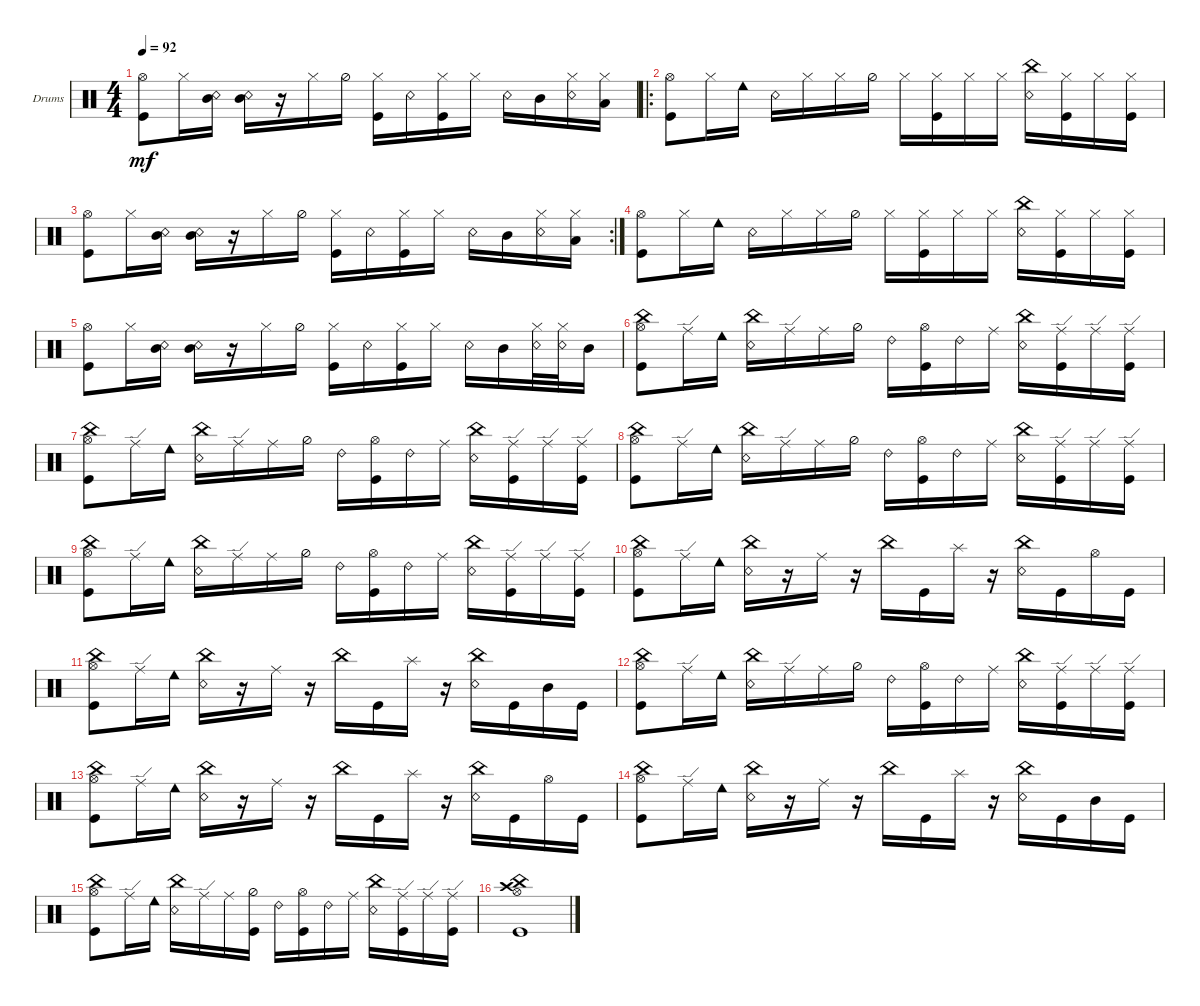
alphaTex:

\defaultSystemsLayout 4
\bracketExtendMode groupsimilarinstruments
\firstSystemTrackNameOrientation horizontal
\otherSystemsTrackNameOrientation horizontal
\track ("Drumkit" "Drums") {instrument percussion}
\staff {score}
\articulation defaults
\ts (4 4)
\tempo 92
\clef neutral
\ks c
("Hi-Hat (open)" "Kick (hit)").8{dy mf} "Hi-Hat (closed)".16 ("Snare (rim shot)" "Mid Tom (hit)").16 ("Snare (rim shot)" "Mid Tom (hit)").16 r.16 "Hi-Hat (closed)".16 "Hi-Hat (half)".16 ("Hi-Hat (closed)" "Kick (hit)").16 "Snare (rim shot)".16 ("Hi-Hat (closed)" "Kick (hit)").16 "Hi-Hat (closed)".16 "Snare (rim shot)".16 "Mid Tom (hit)".16 ("Hi-Hat (closed)" "Snare (rim shot)").16 ("Hi-Hat (closed)" "Low Tom (hit)").16 |
\ro
("Hi-Hat (open)" "Kick (hit)").8 "Hi-Hat (closed)".16 "Cowbell low (hit)".16 "Snare (rim shot)".16 "Hi-Hat (closed)".16 "Hi-Hat (closed)".16 "Hi-Hat (half)".16 "Hi-Hat (closed)".16 ("Hi-Hat (closed)" "Kick (hit)").16 "Hi-Hat (closed)".16 "Hi-Hat (closed)".16 ("Snare (rim shot)" "China (hit)").16 ("Hi-Hat (closed)" "Kick (hit)").16 "Hi-Hat (closed)".16 ("Hi-Hat (closed)" "Kick (hit)").16 |
\rc 2
("Hi-Hat (open)" "Kick (hit)").8 "Hi-Hat (closed)".16 ("Snare (rim shot)" "Mid Tom (hit)").16 ("Snare (rim shot)" "Mid Tom (hit)").16 r.16 "Hi-Hat (closed)".16 "Hi-Hat (half)".16 ("Hi-Hat (closed)" "Kick (hit)").16 "Snare (rim shot)".16 ("Hi-Hat (closed)" "Kick (hit)").16 "Hi-Hat (closed)".16 "Snare (rim shot)".16 "Mid Tom (hit)".16 ("Hi-Hat (closed)" "Snare (rim shot)").16 ("Hi-Hat (closed)" "Low Tom (hit)").16 |
("Hi-Hat (open)" "Kick (hit)").8 "Hi-Hat (closed)".16 "Cowbell low (hit)".16 "Snare (rim shot)".16 "Hi-Hat (closed)".16 "Hi-Hat (closed)".16 "Hi-Hat (half)".16 "Hi-Hat (closed)".16 ("Hi-Hat (closed)" "Kick (hit)").16 "Hi-Hat (closed)".16 "Hi-Hat (closed)".16 ("Snare (rim shot)" "China (hit)").16 ("Hi-Hat (closed)" "Kick (hit)").16 "Hi-Hat (closed)".16 ("Hi-Hat (closed)" "Kick (hit)").16 |
("Hi-Hat (open)" "Kick (hit)").8 "Hi-Hat (closed)".16 ("Snare (rim shot)" "Mid Tom (hit)").16 ("Snare (rim shot)" "Mid Tom (hit)").16 r.16 "Hi-Hat (closed)".16 "Hi-Hat (half)".16 ("Hi-Hat (closed)" "Kick (hit)").16 "Snare (rim shot)".16 ("Hi-Hat (closed)" "Kick (hit)").16 "Hi-Hat (closed)".16 "Snare (rim shot)".16 "Mid Tom (hit)".16 ("Hi-Hat (closed)" "Snare (rim shot)").32 ("Hi-Hat (closed)" "Snare (rim shot)").32 "Mid Tom (hit)".16 |
("Hi-Hat (open)" "Kick (hit)" "China (hit)").8 "Ride (edge)".16 "Cowbell low (hit)".16 ("Snare (rim shot)" "China (hit)").16 "Ride (edge)".16 "Ride (middle)".16 "Hi-Hat (half)".16 "Ride (bell) 2".16 ("Hi-Hat (open)" "Kick (hit)").16 "Ride (bell) 2".16 "Ride (middle)".16 ("Snare (rim shot)" "China (hit)").16 ("Kick (hit)" "Ride (edge)").16 "Ride (edge)".16 ("Kick (hit)" "Ride (edge)").16 |
("Hi-Hat (open)" "Kick (hit)" "China (hit)").8 "Ride (edge)".16 "Cowbell low (hit)".16 ("Snare (rim shot)" "China (hit)").16 "Ride (edge)".16 "Ride (middle)".16 "Hi-Hat (half)".16 "Ride (bell) 2".16 ("Hi-Hat (open)" "Kick (hit)").16 "Ride (bell) 2".16 "Ride (middle)".16 ("Snare (rim shot)" "China (hit)").16 ("Kick (hit)" "Ride (edge)").16 "Ride (edge)".16 ("Kick (hit)" "Ride (edge)").16 |
("Hi-Hat (open)" "Kick (hit)" "China (hit)").8 "Ride (edge)".16 "Cowbell low (hit)".16 ("Snare (rim shot)" "China (hit)").16 "Ride (edge)".16 "Ride (middle)".16 "Hi-Hat (half)".16 "Ride (bell) 2".16 ("Hi-Hat (open)" "Kick (hit)").16 "Ride (bell) 2".16 "Ride (middle)".16 ("Snare (rim shot)" "China (hit)").16 ("Kick (hit)" "Ride (edge)").16 "Ride (edge)".16 ("Kick (hit)" "Ride (edge)").16 |
("Hi-Hat (open)" "Kick (hit)" "China (hit)").8 "Ride (edge)".16 "Cowbell low (hit)".16 ("Snare (rim shot)" "China (hit)").16 "Ride (edge)".16 "Ride (middle)".16 "Hi-Hat (half)".16 "Ride (bell) 2".16 ("Hi-Hat (open)" "Kick (hit)").16 "Ride (bell) 2".16 "Ride (middle)".16 ("Snare (rim shot)" "China (hit)").16 ("Kick (hit)" "Ride (edge)").16 "Ride (edge)".16 ("Kick (hit)" "Ride (edge)").16 |
("Hi-Hat (open)" "Kick (hit)" "China (hit)").8 "Ride (edge)".16 "Cowbell low (hit)".16 ("Snare (rim shot)" "China (hit)").16 r.16 "Ride (middle)".16 r.16 "China (hit)".16 "Kick (hit)".16 "Splash (hit)".16 r.16 ("Snare (rim shot)" "China (hit)").16 "Kick (hit)".16 "Hi-Hat (open)".16 "Kick (hit)".16 |
("Hi-Hat (open)" "Kick (hit)" "China (hit)").8 "Ride (edge)".16 "Cowbell low (hit)".16 ("Snare (rim shot)" "China (hit)").16 r.16 "Ride (middle)".16 r.16 "China (hit)".16 "Kick (hit)".16 "Splash (hit)".16 r.16 ("Snare (rim shot)" "China (hit)").16 "Kick (hit)".16 "Mid Tom (hit)".16 "Kick (hit)".16 |
("Hi-Hat (open)" "Kick (hit)" "China (hit)").8 "Ride (edge)".16 "Cowbell low (hit)".16 ("Snare (rim shot)" "China (hit)").16 "Ride (edge)".16 "Ride (middle)".16 "Hi-Hat (half)".16 "Ride (bell) 2".16 ("Hi-Hat (open)" "Kick (hit)").16 "Ride (bell) 2".16 "Ride (middle)".16 ("Snare (rim shot)" "China (hit)").16 ("Kick (hit)" "Ride (edge)").16 "Ride (edge)".16 ("Kick (hit)" "Ride (edge)").16 |
("Hi-Hat (open)" "Kick (hit)" "China (hit)").8 "Ride (edge)".16 "Cowbell low (hit)".16 ("Snare (rim shot)" "China (hit)").16 r.16 "Ride (middle)".16 r.16 "China (hit)".16 "Kick (hit)".16 "Splash (hit)".16 r.16 ("Snare (rim shot)" "China (hit)").16 "Kick (hit)".16 "Hi-Hat (open)".16 "Kick (hit)".16 |
("Hi-Hat (open)" "Kick (hit)" "China (hit)").8 "Ride (edge)".16 "Cowbell low (hit)".16 ("Snare (rim shot)" "China (hit)").16 r.16 "Ride (middle)".16 r.16 "China (hit)".16 "Kick (hit)".16 "Splash (hit)".16 r.16 ("Snare (rim shot)" "China (hit)").16 "Kick (hit)".16 "Mid Tom (hit)".16 "Kick (hit)".16 |
("Hi-Hat (open)" "Kick (hit)" "China (hit)").8 "Ride (edge)".16 "Cowbell low (hit)".16 ("Snare (rim shot)" "China (hit)").16 "Ride (edge)".16 "Ride (middle)".16 ("Hi-Hat (half)" "Kick (hit)").16 "Ride (bell) 2".16 ("Hi-Hat (open)" "Kick (hit)").16 "Ride (bell) 2".16 "Ride (middle)".16 ("Snare (rim shot)" "China (hit)").16 ("Kick (hit)" "Ride (edge)").16 "Ride (edge)".16 ("Kick (hit)" "Ride (edge)").16 |
("Kick (hit)" "Hi-Hat (open)" "China (hit)" "Crash high (hit)").1
